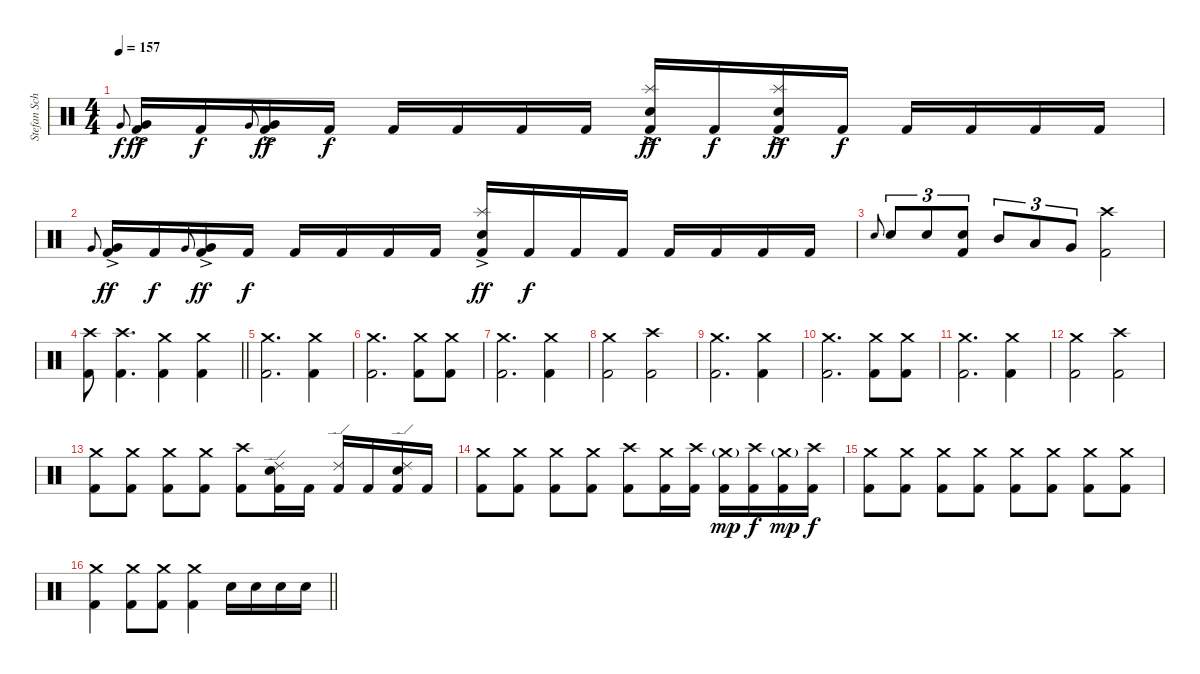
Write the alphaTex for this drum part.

\track ("Stefan Schwarzmann" "Stefan Sch") {instrument percussion}
\staff {score}
\articulation defaults
\ts (4 4)
\tempo 157
\clef neutral
\ks c "Very Low Tom (hit)".8{gr onbeat dy f}
("Very Low Tom (hit)"{ac} "Kick (hit) 2").16{dy ff} "Kick (hit) 2".16{dy f} "Very Low Tom (hit)".8{gr onbeat} ("Very Low Tom (hit)"{ac} "Kick (hit) 2").16{dy ff} "Kick (hit) 2".16{dy f} "Kick (hit) 2".16 "Kick (hit) 2".16 "Kick (hit) 2".16 "Kick (hit) 2".16 ("Splash (hit)"{ac} "Snare (hit) 2" "Kick (hit) 2").16{dy ff} "Kick (hit) 2".16{dy f} ("Splash (hit)"{ac} "Snare (hit) 2" "Kick (hit) 2").16{dy ff} "Kick (hit) 2".16{dy f} "Kick (hit) 2".16 "Kick (hit) 2".16 "Kick (hit) 2".16 "Kick (hit) 2".16 |
"Very Low Tom (hit)".8{gr onbeat} ("Very Low Tom (hit)"{ac} "Kick (hit) 2").16{dy ff} "Kick (hit) 2".16{dy f} "Very Low Tom (hit)".8{gr onbeat} ("Very Low Tom (hit)"{ac} "Kick (hit) 2").16{dy ff} "Kick (hit) 2".16{dy f} "Kick (hit) 2".16 "Kick (hit) 2".16 "Kick (hit) 2".16 "Kick (hit) 2".16 ("Splash (hit)"{ac} "Snare (hit) 2" "Kick (hit) 2").16{dy ff} "Kick (hit) 2".16{dy f} "Kick (hit) 2".16 "Kick (hit) 2".16 "Kick (hit) 2".16 "Kick (hit) 2".16 "Kick (hit) 2".16 "Kick (hit) 2".16 |
"Snare (hit) 2".8{gr onbeat} "Snare (hit) 2".8{tu (3 2)} "Snare (hit) 2".8{tu (3 2)} ("Snare (hit) 2" "Kick (hit) 2").8{tu (3 2)} "Mid Tom (hit)".8{tu (3 2)} "Low Tom (hit)".8{tu (3 2)} "Very Low Tom (hit)".8{tu (3 2)} ("Crash high (hit)" "Kick (hit) 2").2 |
\barLineRight lightlight
("Crash high (hit)" "Kick (hit) 2").8 ("Crash high (hit)" "Kick (hit) 2").4{d} ("Crash medium (hit)" "Kick (hit) 2").4 ("Crash medium (hit)" "Kick (hit) 2").4 |
\section ("" "")
("Crash medium (hit)" "Kick (hit) 2").2{d} ("Crash medium (hit)" "Kick (hit) 2").4 |
("Crash medium (hit)" "Kick (hit) 2").2{d} ("Crash medium (hit)" "Kick (hit) 2").8 ("Crash medium (hit)" "Kick (hit) 2").8 |
("Crash medium (hit)" "Kick (hit) 2").2{d} ("Crash medium (hit)" "Kick (hit) 2").4 |
("Crash medium (hit)" "Kick (hit) 2").2 ("Crash high (hit)" "Kick (hit) 2").2 |
("Crash medium (hit)" "Kick (hit) 2").2{d} ("Crash medium (hit)" "Kick (hit) 2").4 |
("Crash medium (hit)" "Kick (hit) 2").2{d} ("Crash medium (hit)" "Kick (hit) 2").8 ("Crash medium (hit)" "Kick (hit) 2").8 |
("Crash medium (hit)" "Kick (hit) 2").2{d} ("Crash medium (hit)" "Kick (hit) 2").4 |
("Crash medium (hit)" "Kick (hit) 2").2 ("Crash high (hit)" "Kick (hit) 2").2 |
("Crash medium (hit)" "Kick (hit) 2").8 ("Crash medium (hit)" "Kick (hit) 2").8 ("Crash medium (hit)" "Kick (hit) 2").8 ("Crash medium (hit)" "Kick (hit) 2").8 ("Crash high (hit)" "Kick (hit) 2").8 ("Ride (edge) 2" "Snare (hit) 2" "Kick (hit) 2").16 "Kick (hit) 2".16 ("Ride (edge) 2" "Kick (hit) 2").16 "Kick (hit) 2".16 ("Ride (edge) 2" "Snare (hit) 2" "Kick (hit) 2").16 "Kick (hit) 2".16 |
("Crash medium (hit)" "Kick (hit) 2").8 ("Crash medium (hit)" "Kick (hit) 2").8 ("Crash medium (hit)" "Kick (hit) 2").8 ("Crash medium (hit)" "Kick (hit) 2").8 ("Crash high (hit)" "Kick (hit) 2").8 ("Crash medium (hit)" "Kick (hit) 2").16 ("Crash high (hit)" "Kick (hit) 2").16 ("Crash medium (hit)"{g} "Kick (hit) 2").16{dy mp} ("Crash high (hit)" "Kick (hit) 2").16{dy f} ("Crash medium (hit)"{g} "Kick (hit) 2").16{dy mp} ("Crash high (hit)" "Kick (hit) 2").16{dy f} |
("Crash medium (hit)" "Kick (hit) 2").8 ("Crash medium (hit)" "Kick (hit) 2").8 ("Crash medium (hit)" "Kick (hit) 2").8 ("Crash medium (hit)" "Kick (hit) 2").8 ("Crash medium (hit)" "Kick (hit) 2").8 ("Crash medium (hit)" "Kick (hit) 2").8 ("Crash medium (hit)" "Kick (hit) 2").8 ("Crash medium (hit)" "Kick (hit) 2").8 |
\barLineRight lightlight
("Crash medium (hit)" "Kick (hit) 2").4 ("Crash medium (hit)" "Kick (hit) 2").8 ("Crash medium (hit)" "Kick (hit) 2").8 ("Crash medium (hit)" "Kick (hit) 2").4 "Snare (hit) 2".16 "Snare (hit) 2".16 "Snare (hit) 2".16 "Snare (hit) 2".16
